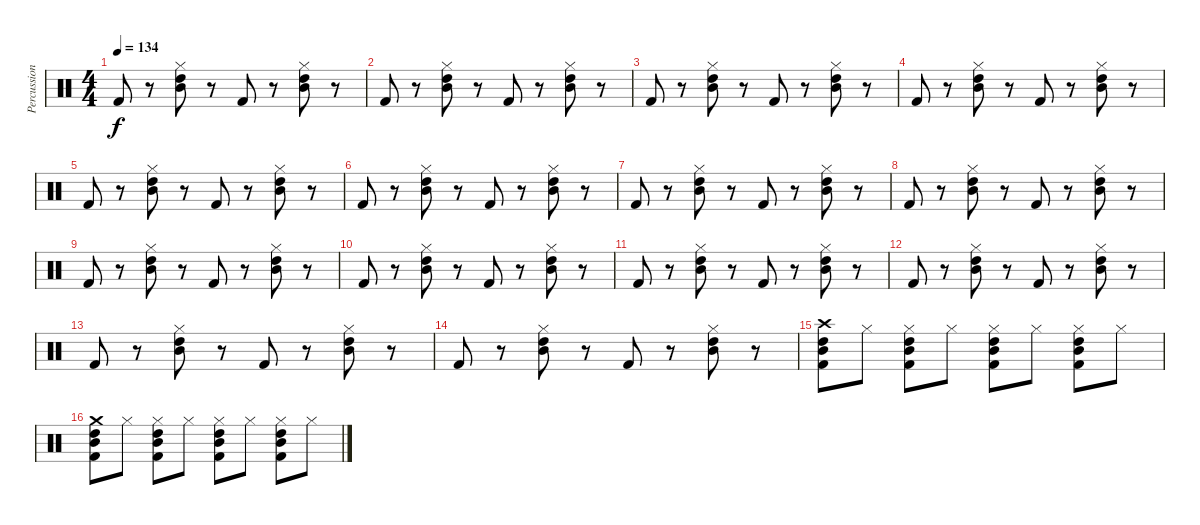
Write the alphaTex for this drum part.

\track ("Percussion" "Percussion") {instrument percussion}
\staff {score}
\articulation defaults
\ts (4 4)
\tempo 134
\clef neutral
\ks c "Kick (hit) 2".8{dy f}
r.8 ("Hi-Hat (closed)" "Mid Tom (hit)" "High Tom (hit)").8 r.8 "Kick (hit) 2".8 r.8 ("Hi-Hat (closed)" "Mid Tom (hit)" "High Tom (hit)").8 r.8 |
"Kick (hit) 2".8 r.8 ("Hi-Hat (closed)" "Mid Tom (hit)" "High Tom (hit)").8 r.8 "Kick (hit) 2".8 r.8 ("Hi-Hat (closed)" "Mid Tom (hit)" "High Tom (hit)").8 r.8 |
"Kick (hit) 2".8 r.8 ("Hi-Hat (closed)" "Mid Tom (hit)" "High Tom (hit)").8 r.8 "Kick (hit) 2".8 r.8 ("Hi-Hat (closed)" "Mid Tom (hit)" "High Tom (hit)").8 r.8 |
"Kick (hit) 2".8 r.8 ("Hi-Hat (closed)" "Mid Tom (hit)" "High Tom (hit)").8 r.8 "Kick (hit) 2".8 r.8 ("Hi-Hat (closed)" "Mid Tom (hit)" "High Tom (hit)").8 r.8 |
"Kick (hit) 2".8 r.8 ("Hi-Hat (closed)" "Mid Tom (hit)" "High Tom (hit)").8 r.8 "Kick (hit) 2".8 r.8 ("Hi-Hat (closed)" "Mid Tom (hit)" "High Tom (hit)").8 r.8 |
"Kick (hit) 2".8 r.8 ("Hi-Hat (closed)" "Mid Tom (hit)" "High Tom (hit)").8 r.8 "Kick (hit) 2".8 r.8 ("Hi-Hat (closed)" "Mid Tom (hit)" "High Tom (hit)").8 r.8 |
"Kick (hit) 2".8 r.8 ("Hi-Hat (closed)" "Mid Tom (hit)" "High Tom (hit)").8 r.8 "Kick (hit) 2".8 r.8 ("Hi-Hat (closed)" "Mid Tom (hit)" "High Tom (hit)").8 r.8 |
"Kick (hit) 2".8 r.8 ("Hi-Hat (closed)" "Mid Tom (hit)" "High Tom (hit)").8 r.8 "Kick (hit) 2".8 r.8 ("Hi-Hat (closed)" "Mid Tom (hit)" "High Tom (hit)").8 r.8 |
"Kick (hit) 2".8 r.8 ("Hi-Hat (closed)" "Mid Tom (hit)" "High Tom (hit)").8 r.8 "Kick (hit) 2".8 r.8 ("Hi-Hat (closed)" "Mid Tom (hit)" "High Tom (hit)").8 r.8 |
"Kick (hit) 2".8 r.8 ("Hi-Hat (closed)" "Mid Tom (hit)" "High Tom (hit)").8 r.8 "Kick (hit) 2".8 r.8 ("Hi-Hat (closed)" "Mid Tom (hit)" "High Tom (hit)").8 r.8 |
"Kick (hit) 2".8 r.8 ("Hi-Hat (closed)" "Mid Tom (hit)" "High Tom (hit)").8 r.8 "Kick (hit) 2".8 r.8 ("Hi-Hat (closed)" "Mid Tom (hit)" "High Tom (hit)").8 r.8 |
"Kick (hit) 2".8 r.8 ("Hi-Hat (closed)" "Mid Tom (hit)" "High Tom (hit)").8 r.8 "Kick (hit) 2".8 r.8 ("Hi-Hat (closed)" "Mid Tom (hit)" "High Tom (hit)").8 r.8 |
"Kick (hit) 2".8 r.8 ("Hi-Hat (closed)" "Mid Tom (hit)" "High Tom (hit)").8 r.8 "Kick (hit) 2".8 r.8 ("Hi-Hat (closed)" "Mid Tom (hit)" "High Tom (hit)").8 r.8 |
"Kick (hit) 2".8 r.8 ("Hi-Hat (closed)" "Mid Tom (hit)" "High Tom (hit)").8 r.8 "Kick (hit) 2".8 r.8 ("Hi-Hat (closed)" "Mid Tom (hit)" "High Tom (hit)").8 r.8 |
("Crash high (hit)" "Mid Tom (hit)" "High Tom (hit)" "Kick (hit) 2").8 "Hi-Hat (closed)".8 ("Hi-Hat (closed)" "Mid Tom (hit)" "High Tom (hit)" "Kick (hit) 2").8 "Hi-Hat (closed)".8 ("Hi-Hat (closed)" "Mid Tom (hit)" "High Tom (hit)" "Kick (hit) 2").8 "Hi-Hat (closed)".8 ("Hi-Hat (closed)" "Mid Tom (hit)" "High Tom (hit)" "Kick (hit) 2").8 "Hi-Hat (closed)".8 |
("Crash medium (hit)" "Mid Tom (hit)" "High Tom (hit)" "Kick (hit) 2").8 "Hi-Hat (closed)".8 ("Hi-Hat (closed)" "Mid Tom (hit)" "High Tom (hit)" "Kick (hit) 2").8 "Hi-Hat (closed)".8 ("Hi-Hat (closed)" "Mid Tom (hit)" "High Tom (hit)" "Kick (hit) 2").8 "Hi-Hat (closed)".8 ("Hi-Hat (closed)" "Mid Tom (hit)" "High Tom (hit)" "Kick (hit) 2").8 "Hi-Hat (closed)".8
